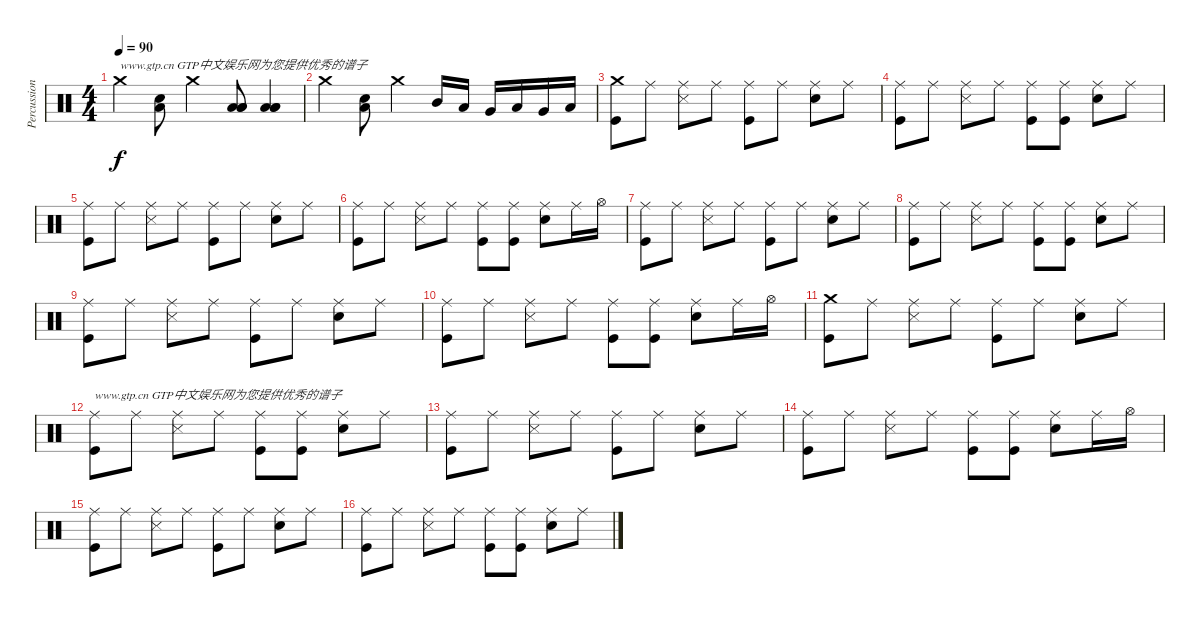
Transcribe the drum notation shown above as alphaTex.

\track ("Percussion" "Percussion") {instrument percussion}
\staff {score}
\articulation defaults
\ts (4 4)
\tempo 90
\clef neutral
\ks c "Crash medium (hit)".4{txt "www.gtp.cn GTP中文娱乐网为您提供优秀的谱子" dy f}
("Low Tom (hit)" "Electric Snare (hit)").8 "Crash medium (hit)".4 ("Low Tom (hit)" "Low Tom (hit)" "Low Tom (hit)").8 ("Low Tom (hit)" "Low Tom (hit)" "Low Tom (hit)").4 |
"Crash medium (hit)".4 ("Low Tom (hit)" "Electric Snare (hit)").8 "Crash medium (hit)".4 "Mid Tom (hit)".16 "Low Tom (hit)".16 "Very Low Tom (hit)".16 "Low Floor Tom (hit)".16 "Very Low Tom (hit)".16 "Low Floor Tom (hit)".16 |
("Kick (hit)" "Crash medium (hit)").8 "Ride (middle)".8 ("Ride (middle)" "Snare (side stick) 3").8 "Ride (middle)".8 ("Ride (middle)" "Kick (hit)").8 "Ride (middle)".8 ("Ride (middle)" "Electric Snare (hit)").8 "Ride (middle)".8 |
("Ride (middle)" "Kick (hit)").8 "Ride (middle)".8 ("Ride (middle)" "Snare (side stick) 3").8 "Ride (middle)".8 ("Ride (middle)" "Kick (hit)").8 ("Ride (middle)" "Kick (hit)").8 ("Ride (middle)" "Electric Snare (hit)").8 "Ride (middle)".8 |
("Ride (middle)" "Kick (hit)").8 "Ride (middle)".8 ("Ride (middle)" "Snare (side stick) 3").8 "Ride (middle)".8 ("Ride (middle)" "Kick (hit)").8 "Ride (middle)".8 ("Ride (middle)" "Electric Snare (hit)").8 "Ride (middle)".8 |
("Ride (middle)" "Kick (hit)").8 "Ride (middle)".8 ("Ride (middle)" "Snare (side stick) 3").8 "Ride (middle)".8 ("Ride (middle)" "Kick (hit)").8 ("Ride (middle)" "Kick (hit)").8 ("Ride (middle)" "Electric Snare (hit)").8 "Ride (middle)".16 "Hi-Hat (open)".16 |
("Ride (middle)" "Kick (hit)").8 "Ride (middle)".8 ("Ride (middle)" "Snare (side stick) 3").8 "Ride (middle)".8 ("Ride (middle)" "Kick (hit)").8 "Ride (middle)".8 ("Ride (middle)" "Electric Snare (hit)").8 "Ride (middle)".8 |
("Ride (middle)" "Kick (hit)").8 "Ride (middle)".8 ("Ride (middle)" "Snare (side stick) 3").8 "Ride (middle)".8 ("Ride (middle)" "Kick (hit)").8 ("Ride (middle)" "Kick (hit)").8 ("Ride (middle)" "Electric Snare (hit)").8 "Ride (middle)".8 |
("Ride (middle)" "Kick (hit)").8 "Ride (middle)".8 ("Ride (middle)" "Snare (side stick) 3").8 "Ride (middle)".8 ("Ride (middle)" "Kick (hit)").8 "Ride (middle)".8 ("Ride (middle)" "Electric Snare (hit)").8 "Ride (middle)".8 |
("Ride (middle)" "Kick (hit)").8 "Ride (middle)".8 ("Ride (middle)" "Snare (side stick) 3").8 "Ride (middle)".8 ("Ride (middle)" "Kick (hit)").8 ("Ride (middle)" "Kick (hit)").8 ("Ride (middle)" "Electric Snare (hit)").8 "Ride (middle)".16 "Hi-Hat (open)".16 |
("Kick (hit)" "Crash medium (hit)").8 "Ride (middle)".8 ("Ride (middle)" "Snare (side stick) 3").8 "Ride (middle)".8 ("Ride (middle)" "Kick (hit)").8 "Ride (middle)".8 ("Ride (middle)" "Electric Snare (hit)").8 "Ride (middle)".8 |
("Ride (middle)" "Kick (hit)").8{txt "www.gtp.cn GTP中文娱乐网为您提供优秀的谱子"} "Ride (middle)".8 ("Ride (middle)" "Snare (side stick) 3").8 "Ride (middle)".8 ("Ride (middle)" "Kick (hit)").8 ("Ride (middle)" "Kick (hit)").8 ("Ride (middle)" "Electric Snare (hit)").8 "Ride (middle)".8 |
("Ride (middle)" "Kick (hit)").8 "Ride (middle)".8 ("Ride (middle)" "Snare (side stick) 3").8 "Ride (middle)".8 ("Ride (middle)" "Kick (hit)").8 "Ride (middle)".8 ("Ride (middle)" "Electric Snare (hit)").8 "Ride (middle)".8 |
("Ride (middle)" "Kick (hit)").8 "Ride (middle)".8 ("Ride (middle)" "Snare (side stick) 3").8 "Ride (middle)".8 ("Ride (middle)" "Kick (hit)").8 ("Ride (middle)" "Kick (hit)").8 ("Ride (middle)" "Electric Snare (hit)").8 "Ride (middle)".16 "Hi-Hat (open)".16 |
("Ride (middle)" "Kick (hit)").8 "Ride (middle)".8 ("Ride (middle)" "Snare (side stick) 3").8 "Ride (middle)".8 ("Ride (middle)" "Kick (hit)").8 "Ride (middle)".8 ("Ride (middle)" "Electric Snare (hit)").8 "Ride (middle)".8 |
("Ride (middle)" "Kick (hit)").8 "Ride (middle)".8 ("Ride (middle)" "Snare (side stick) 3").8 "Ride (middle)".8 ("Ride (middle)" "Kick (hit)").8 ("Ride (middle)" "Kick (hit)").8 ("Ride (middle)" "Electric Snare (hit)").8 "Ride (middle)".8
